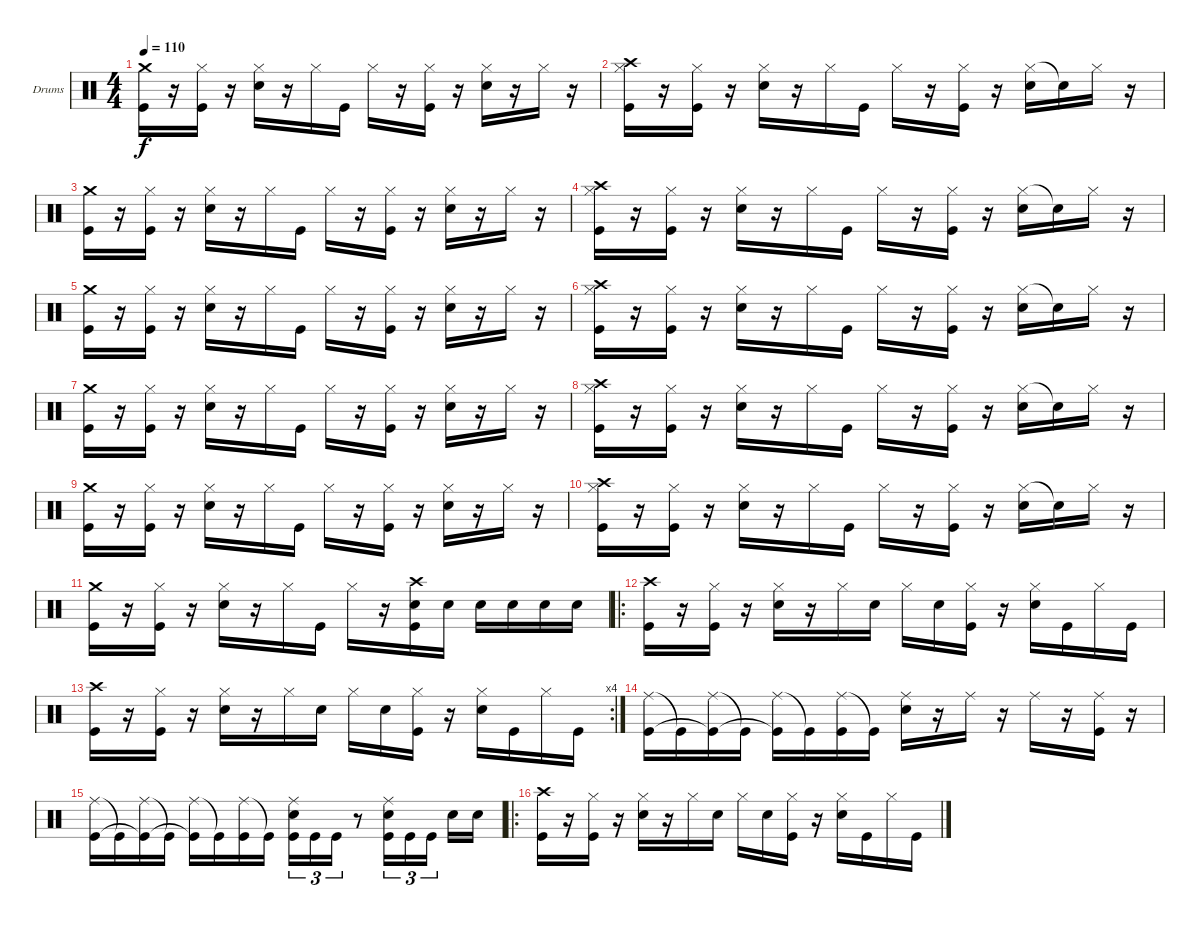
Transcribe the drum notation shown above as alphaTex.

\defaultSystemsLayout 4
\bracketExtendMode groupsimilarinstruments
\firstSystemTrackNameOrientation horizontal
\otherSystemsTrackNameOrientation horizontal
\track ("Павел Тетерин(Pa$ok)" "Drums") {instrument percussion}
\staff {score}
\articulation defaults
\ts (4 4)
\tempo 110
\clef neutral
\scale
0.333333
\ks c
("Crash medium (hit)" "Kick (hit)").16{dy f} r.16 ("Hi-Hat (closed)" "Kick (hit)").16 r.16 ("Hi-Hat (closed)" "Snare (hit) 2").16 r.16 "Hi-Hat (closed)".16 "Kick (hit)".16 "Hi-Hat (closed)".16 r.16 ("Hi-Hat (closed)" "Kick (hit)").16 r.16 ("Hi-Hat (closed)" "Snare (hit) 2").16 r.16 "Hi-Hat (closed)".16 r.16 |
\scale
0.333333 ("Crash high (hit)" "Hi-Hat (closed)" "Kick (hit)").16 r.16 ("Hi-Hat (closed)" "Kick (hit)").16 r.16 ("Hi-Hat (closed)" "Snare (hit) 2").16 r.16 "Hi-Hat (closed)".16 "Kick (hit)".16 "Hi-Hat (closed)".16 r.16 ("Hi-Hat (closed)" "Kick (hit)").16 r.16 ("Hi-Hat (closed)" "Snare (hit) 2").16 "Snare (hit) 2"{t}.16 "Hi-Hat (closed)".16 r.16 |
\scale
0.333333 ("Crash medium (hit)" "Kick (hit)").16 r.16 ("Hi-Hat (closed)" "Kick (hit)").16 r.16 ("Hi-Hat (closed)" "Snare (hit) 2").16 r.16 "Hi-Hat (closed)".16 "Kick (hit)".16 "Hi-Hat (closed)".16 r.16 ("Hi-Hat (closed)" "Kick (hit)").16 r.16 ("Hi-Hat (closed)" "Snare (hit) 2").16 r.16 "Hi-Hat (closed)".16 r.16 |
\scale
0.333333 ("Crash high (hit)" "Hi-Hat (closed)" "Kick (hit)").16 r.16 ("Hi-Hat (closed)" "Kick (hit)").16 r.16 ("Hi-Hat (closed)" "Snare (hit) 2").16 r.16 "Hi-Hat (closed)".16 "Kick (hit)".16 "Hi-Hat (closed)".16 r.16 ("Hi-Hat (closed)" "Kick (hit)").16 r.16 ("Hi-Hat (closed)" "Snare (hit) 2").16 "Snare (hit) 2"{t}.16 "Hi-Hat (closed)".16 r.16 |
\scale
0.333333 ("Crash medium (hit)" "Kick (hit)").16 r.16 ("Hi-Hat (closed)" "Kick (hit)").16 r.16 ("Hi-Hat (closed)" "Snare (hit) 2").16 r.16 "Hi-Hat (closed)".16 "Kick (hit)".16 "Hi-Hat (closed)".16 r.16 ("Hi-Hat (closed)" "Kick (hit)").16 r.16 ("Hi-Hat (closed)" "Snare (hit) 2").16 r.16 "Hi-Hat (closed)".16 r.16 |
("Crash high (hit)" "Hi-Hat (closed)" "Kick (hit)").16 r.16 ("Hi-Hat (closed)" "Kick (hit)").16 r.16 ("Hi-Hat (closed)" "Snare (hit) 2").16 r.16 "Hi-Hat (closed)".16 "Kick (hit)".16 "Hi-Hat (closed)".16 r.16 ("Hi-Hat (closed)" "Kick (hit)").16 r.16 ("Hi-Hat (closed)" "Snare (hit) 2").16 "Snare (hit) 2"{t}.16 "Hi-Hat (closed)".16 r.16 |
("Crash medium (hit)" "Kick (hit)").16 r.16 ("Hi-Hat (closed)" "Kick (hit)").16 r.16 ("Hi-Hat (closed)" "Snare (hit) 2").16 r.16 "Hi-Hat (closed)".16 "Kick (hit)".16 "Hi-Hat (closed)".16 r.16 ("Hi-Hat (closed)" "Kick (hit)").16 r.16 ("Hi-Hat (closed)" "Snare (hit) 2").16 r.16 "Hi-Hat (closed)".16 r.16 |
("Crash high (hit)" "Hi-Hat (closed)" "Kick (hit)").16 r.16 ("Hi-Hat (closed)" "Kick (hit)").16 r.16 ("Hi-Hat (closed)" "Snare (hit) 2").16 r.16 "Hi-Hat (closed)".16 "Kick (hit)".16 "Hi-Hat (closed)".16 r.16 ("Hi-Hat (closed)" "Kick (hit)").16 r.16 ("Hi-Hat (closed)" "Snare (hit) 2").16 "Snare (hit) 2"{t}.16 "Hi-Hat (closed)".16 r.16 |
("Crash medium (hit)" "Kick (hit)").16 r.16 ("Hi-Hat (closed)" "Kick (hit)").16 r.16 ("Hi-Hat (closed)" "Snare (hit) 2").16 r.16 "Hi-Hat (closed)".16 "Kick (hit)".16 "Hi-Hat (closed)".16 r.16 ("Hi-Hat (closed)" "Kick (hit)").16 r.16 ("Hi-Hat (closed)" "Snare (hit) 2").16 r.16 "Hi-Hat (closed)".16 r.16 |
("Crash high (hit)" "Hi-Hat (closed)" "Kick (hit)").16 r.16 ("Hi-Hat (closed)" "Kick (hit)").16 r.16 ("Hi-Hat (closed)" "Snare (hit) 2").16 r.16 "Hi-Hat (closed)".16 "Kick (hit)".16 "Hi-Hat (closed)".16 r.16 ("Hi-Hat (closed)" "Kick (hit)").16 r.16 ("Hi-Hat (closed)" "Snare (hit) 2").16 "Snare (hit) 2"{t}.16 "Hi-Hat (closed)".16 r.16 |
("Crash medium (hit)" "Kick (hit)").16 r.16 ("Hi-Hat (closed)" "Kick (hit)").16 r.16 ("Hi-Hat (closed)" "Snare (hit) 2").16 r.16 "Hi-Hat (closed)".16 "Kick (hit)".16 "Hi-Hat (closed)".16 r.16 ("Crash high (hit)" "Snare (hit) 2" "Kick (hit)").16 "Snare (hit) 2".16 "Snare (hit) 2".16 "Snare (hit) 2".16 "Snare (hit) 2".16 "Snare (hit) 2".16 |
\ro
("Crash high (hit)" "Kick (hit)").16 r.16 ("Hi-Hat (closed)" "Kick (hit)").16 r.16 ("Hi-Hat (closed)" "Snare (hit) 2").16 r.16 "Hi-Hat (closed)".16 "Snare (hit) 2".16 "Hi-Hat (closed)".16 "Snare (hit) 2".16 ("Hi-Hat (closed)" "Kick (hit)").16 r.16 ("Hi-Hat (closed)" "Snare (hit) 2").16 "Kick (hit)".16 "Hi-Hat (closed)".16 "Kick (hit)".16 |
\rc 4
("Crash high (hit)" "Kick (hit)").16 r.16 ("Hi-Hat (closed)" "Kick (hit)").16 r.16 ("Hi-Hat (closed)" "Snare (hit) 2").16 r.16 "Hi-Hat (closed)".16 "Snare (hit) 2".16 "Hi-Hat (closed)".16 "Snare (hit) 2".16 ("Hi-Hat (closed)" "Kick (hit)").16 r.16 ("Hi-Hat (closed)" "Snare (hit) 2").16 "Kick (hit)".16 "Hi-Hat (closed)".16 "Kick (hit)".16 |
("Ride (middle)" "Kick (hit)").16 "Kick (hit)"{t}.16 ("Ride (middle)" "Kick (hit)"{t}).16 "Kick (hit)"{t}.16 ("Ride (middle)" "Kick (hit)"{t}).16 "Kick (hit)"{t}.16 ("Ride (middle)" "Kick (hit)").16 "Kick (hit)"{t}.16 ("Ride (middle)" "Snare (hit) 2").16 r.16 "Ride (middle)".16 r.16 "Ride (middle)".16 r.16 ("Ride (middle)" "Kick (hit)").16 r.16 |
("Ride (middle)" "Kick (hit)").16 "Kick (hit)"{t}.16 ("Ride (middle)" "Kick (hit)"{t}).16 "Kick (hit)"{t}.16 ("Ride (middle)" "Kick (hit)"{t}).16 "Kick (hit)"{t}.16 ("Ride (middle)" "Kick (hit)").16 "Kick (hit)"{t}.16 ("Ride (middle)" "Snare (hit) 2" "Kick (hit)").16{tu (3 2)} "Kick (hit)".16{tu (3 2)} "Kick (hit)".16{tu (3 2)} r.8 ("Ride (middle)" "Snare (hit) 2" "Kick (hit)").16{tu (3 2)} "Kick (hit)".16{tu (3 2)} "Kick (hit)".16{tu (3 2)} "Snare (hit) 2".16 "Snare (hit) 2".16 |
\ro
("Crash high (hit)" "Kick (hit)").16 r.16 ("Hi-Hat (closed)" "Kick (hit)").16 r.16 ("Hi-Hat (closed)" "Snare (hit) 2").16 r.16 "Hi-Hat (closed)".16 "Snare (hit) 2".16 "Hi-Hat (closed)".16 "Snare (hit) 2".16 ("Hi-Hat (closed)" "Kick (hit)").16 r.16 ("Hi-Hat (closed)" "Snare (hit) 2").16 "Kick (hit)".16 "Hi-Hat (closed)".16 "Kick (hit)".16
